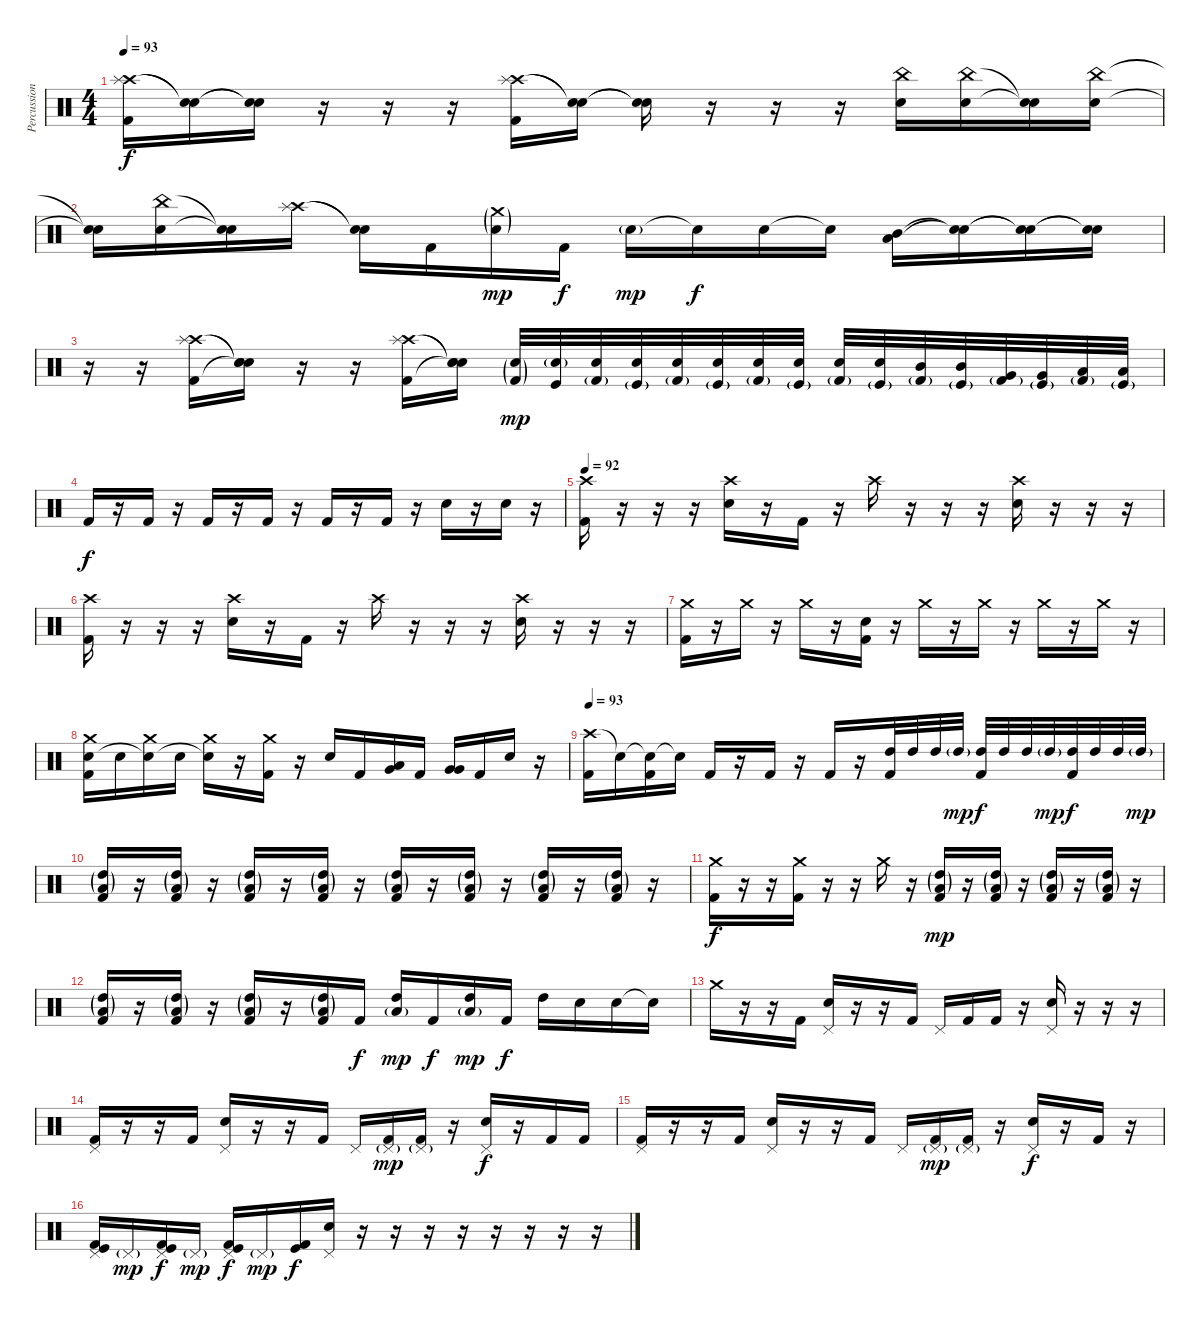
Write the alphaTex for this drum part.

\track ("Percussion" "Percussion") {instrument percussion}
\staff {score}
\articulation defaults
\ts (4 4)
\tempo 93
\clef neutral
\ks c
("Crash high (hit)" "Splash (hit)" "Kick (hit) 2").16{dy f} ("Snare (hit)"{t} "Snare (hit)"{t}).16 ("Snare (hit)"{t} "Snare (hit)"{t}).16 r.16 r.16 r.16 ("Crash high (hit)" "Splash (hit)" "Kick (hit) 2").16 ("Snare (hit)"{t} "Snare (hit)"{t}).16 ("Snare (hit)"{t} "Snare (hit)"{t}).16 r.16 r.16 r.16 ("China (hit)" "Snare (hit) 2").16 ("China (hit)" "Snare (hit) 2").16 ("Snare (hit)"{t} "Snare (hit)"{t}).16 ("China (hit)" "Snare (hit) 2").16 |
("Snare (hit)"{t} "Snare (hit)"{t}).16 ("China (hit)" "Snare (hit) 2").16 ("Snare (hit)"{t} "Snare (hit)"{t}).16 ("Crash high (hit)" "Splash (hit)").16 ("Snare (hit)"{t} "Snare (hit)"{t}).16 "Kick (hit) 2".16 ("Crash medium (hit)"{g} "Snare (hit) 2"{g}).16{dy mp} "Kick (hit) 2".16{dy f} "Snare (hit) 2"{g}.16{dy mp} "Snare (hit)"{t}.16{dy f} "Snare (hit) 2".16 "Snare (hit)"{t}.16 ("Mid Tom (hit)" "Low Tom (hit)").16 ("Snare (hit)"{t} "Snare (hit)"{t}).16 ("Snare (hit)"{t} "Snare (hit)"{t}).16 ("Snare (hit)"{t} "Snare (hit)"{t}).16 |
r.16 r.16 ("Crash high (hit)" "Splash (hit)" "Kick (hit) 2").16 ("Snare (hit)"{t} "Snare (hit)"{t} "Snare (hit)"{t}).16 r.16 r.16 ("Crash high (hit)" "Splash (hit)" "Kick (hit) 2").16 ("Snare (hit)"{t} "Snare (hit)"{t} "Snare (hit)"{t}).16 ("Snare (hit) 2"{g} "Kick (hit) 2"{g}).32{dy mp} ("Snare (hit) 2"{g} "Kick (hit)").32 ("Snare (hit) 2" "Kick (hit) 2"{g}).32 ("Snare (hit) 2" "Kick (hit)"{g}).32 ("Snare (hit) 2" "Kick (hit) 2"{g}).32 ("Snare (hit) 2" "Kick (hit)"{g}).32 ("Snare (hit) 2" "Kick (hit) 2"{g}).32 ("Snare (hit) 2" "Kick (hit)"{g}).32 ("Snare (hit) 2" "Kick (hit) 2"{g}).32 ("Snare (hit) 2" "Kick (hit)"{g}).32 ("Mid Tom (hit)" "Kick (hit) 2"{g}).32 ("Mid Tom (hit)" "Kick (hit)"{g}).32 ("Very Low Tom (hit)" "Kick (hit) 2"{g}).32 ("Very Low Tom (hit)" "Kick (hit)"{g}).32 ("Low Floor Tom (hit)" "Kick (hit) 2"{g}).32 ("Low Floor Tom (hit)" "Kick (hit)"{g}).32 |
"Kick (hit) 2".16{dy f} r.16 "Kick (hit) 2".16 r.16 "Kick (hit) 2".16 r.16 "Kick (hit) 2".16 r.16 "Kick (hit) 2".16 r.16 "Kick (hit) 2".16 r.16 "Snare (hit) 2".16 r.16 "Snare (hit) 2".16 r.16 |
\tempo 92
("Crash high (hit)" "Kick (hit) 2").16 r.16 r.16 r.16 ("Crash high (hit)" "Snare (hit) 2").16 r.16 "Kick (hit) 2".16 r.16 "Crash high (hit)".16 r.16 r.16 r.16 ("Crash high (hit)" "Snare (hit) 2").16 r.16 r.16 r.16 |
("Crash high (hit)" "Kick (hit) 2").16 r.16 r.16 r.16 ("Crash high (hit)" "Snare (hit) 2").16 r.16 "Kick (hit) 2".16 r.16 "Crash high (hit)".16 r.16 r.16 r.16 ("Crash high (hit)" "Snare (hit) 2").16 r.16 r.16 r.16 |
("Crash medium (hit)" "Kick (hit) 2").16 r.16 "Crash medium (hit)".16 r.16 "Crash medium (hit)".16 r.16 ("Snare (hit) 2" "Kick (hit) 2").16 r.16 "Crash medium (hit)".16 r.16 "Crash medium (hit)".16 r.16 "Crash medium (hit)".16 r.16 "Crash medium (hit)".16 r.16 |
("Crash medium (hit)" "Snare (hit) 2" "Kick (hit) 2").16 "Snare (hit) 2".16 ("Crash medium (hit)" "Snare (hit) 2"{t}).16 "Snare (hit) 2".16 ("Crash medium (hit)" "Snare (hit) 2"{t}).16 r.16 ("Crash medium (hit)" "Kick (hit) 2").16 r.16 "Snare (hit) 2".16 "Kick (hit) 2".16 ("Low Tom (hit)" "Very Low Tom (hit)").16 "Kick (hit) 2".16 ("Very Low Tom (hit)" "Very Low Tom (hit)").16 "Kick (hit) 2".16 "Snare (hit) 2".16 r.16 |
\tempo 93
("Crash high (hit)" "Kick (hit) 2").16 "Snare (hit)"{t}.16 ("Snare (hit)"{t} "Kick (hit) 2").16 "Snare (hit)"{t}.16 "Kick (hit) 2".16 r.16 "Kick (hit) 2".16 r.16 "Kick (hit) 2".16 r.16 ("High Tom (hit)" "Kick (hit) 2").32 "High Tom (hit)".32 "High Tom (hit)".32 "High Tom (hit)"{g}.32{dy mp} ("High Tom (hit)" "Kick (hit) 2").32{dy f} "High Tom (hit)".32 "High Tom (hit)".32 "High Tom (hit)"{g}.32{dy mp} ("High Tom (hit)" "Kick (hit) 2").32{dy f} "High Tom (hit)".32 "High Tom (hit)".32 "High Tom (hit)"{g}.32{dy mp} |
("High Tom (hit)"{g} "Low Tom (hit)"{g} "Kick (hit) 2").16 r.16 ("High Tom (hit)"{g} "Low Tom (hit)"{g} "Kick (hit) 2").16 r.16 ("High Tom (hit)"{g} "Low Tom (hit)"{g} "Kick (hit) 2").16 r.16 ("High Tom (hit)"{g} "Low Tom (hit)"{g} "Kick (hit) 2").16 r.16 ("High Tom (hit)"{g} "Low Tom (hit)"{g} "Kick (hit) 2").16 r.16 ("High Tom (hit)"{g} "Low Tom (hit)"{g} "Kick (hit) 2").16 r.16 ("High Tom (hit)"{g} "Low Tom (hit)"{g} "Kick (hit) 2").16 r.16 ("High Tom (hit)"{g} "Low Tom (hit)"{g} "Kick (hit) 2").16 r.16 |
("Crash medium (hit)" "Kick (hit) 2").16{dy f} r.16 r.16 ("Crash medium (hit)" "Kick (hit) 2").16 r.16 r.16 "Crash medium (hit)".16 r.16 ("High Tom (hit)"{g} "Low Tom (hit)"{g} "Kick (hit) 2").16{dy mp} r.16 ("High Tom (hit)"{g} "Low Tom (hit)"{g} "Kick (hit) 2").16 r.16 ("High Tom (hit)"{g} "Low Tom (hit)"{g} "Kick (hit) 2").16 r.16 ("High Tom (hit)"{g} "Low Tom (hit)"{g} "Kick (hit) 2").16 r.16 |
("High Tom (hit)"{g} "Low Tom (hit)"{g} "Kick (hit) 2").16 r.16 ("High Tom (hit)"{g} "Low Tom (hit)"{g} "Kick (hit) 2").16 r.16 ("High Tom (hit)"{g} "Low Tom (hit)"{g} "Kick (hit) 2").16 r.16 ("High Tom (hit)"{g} "Low Tom (hit)"{g} "Kick (hit) 2").16 "Kick (hit) 2".16{dy f} ("High Tom (hit)" "Low Tom (hit)"{g}).16{dy mp} "Kick (hit) 2".16{dy f} ("High Tom (hit)" "Low Tom (hit)"{g}).16{dy mp} "Kick (hit) 2".16{dy f} "High Tom (hit)".16 "Snare (hit) 2".16 "Snare (hit) 2".16 "Snare (hit)"{t}.16 |
"Crash medium (hit)".16 r.16 r.16 "Kick (hit) 2".16 ("Pedal Hi-Hat (hit)" "Snare (hit) 2").16 r.16 r.16 "Kick (hit) 2".16 "Pedal Hi-Hat (hit)".16 "Kick (hit) 2".16 "Kick (hit) 2".16 r.16 ("Pedal Hi-Hat (hit)" "Snare (hit) 2").16 r.16 r.16 r.16 |
("Pedal Hi-Hat (hit)" "Kick (hit) 2").16 r.16 r.16 "Kick (hit) 2".16 ("Pedal Hi-Hat (hit)" "Snare (hit) 2").16 r.16 r.16 "Kick (hit) 2".16 "Pedal Hi-Hat (hit)".16 ("Pedal Hi-Hat (hit)"{g} "Kick (hit) 2").16{dy mp} ("Pedal Hi-Hat (hit)"{g} "Kick (hit) 2").16 r.16 ("Pedal Hi-Hat (hit)" "Snare (hit) 2").16{dy f} r.16 "Kick (hit) 2".16 "Kick (hit) 2".16 |
("Pedal Hi-Hat (hit)" "Kick (hit) 2").16 r.16 r.16 "Kick (hit) 2".16 ("Pedal Hi-Hat (hit)" "Snare (hit) 2").16 r.16 r.16 "Kick (hit) 2".16 "Pedal Hi-Hat (hit)".16 ("Pedal Hi-Hat (hit)"{g} "Kick (hit) 2").16{dy mp} ("Pedal Hi-Hat (hit)"{g} "Kick (hit) 2").16 r.16 ("Pedal Hi-Hat (hit)" "Snare (hit) 2").16{dy f} r.16 "Kick (hit) 2".16 r.16 |
("Pedal Hi-Hat (hit)" "Kick (hit)" "Kick (hit) 2").16 "Pedal Hi-Hat (hit)"{g}.16{dy mp} ("Pedal Hi-Hat (hit)" "Kick (hit)" "Kick (hit) 2").16{dy f} "Pedal Hi-Hat (hit)"{g}.16{dy mp} ("Pedal Hi-Hat (hit)" "Kick (hit)" "Kick (hit) 2").16{dy f} "Pedal Hi-Hat (hit)"{g}.16{dy mp} ("Kick (hit)" "Kick (hit) 2").16{dy f} ("Pedal Hi-Hat (hit)" "Snare (hit) 2").16 r.16 r.16 r.16 r.16 r.16 r.16 r.16 r.16
